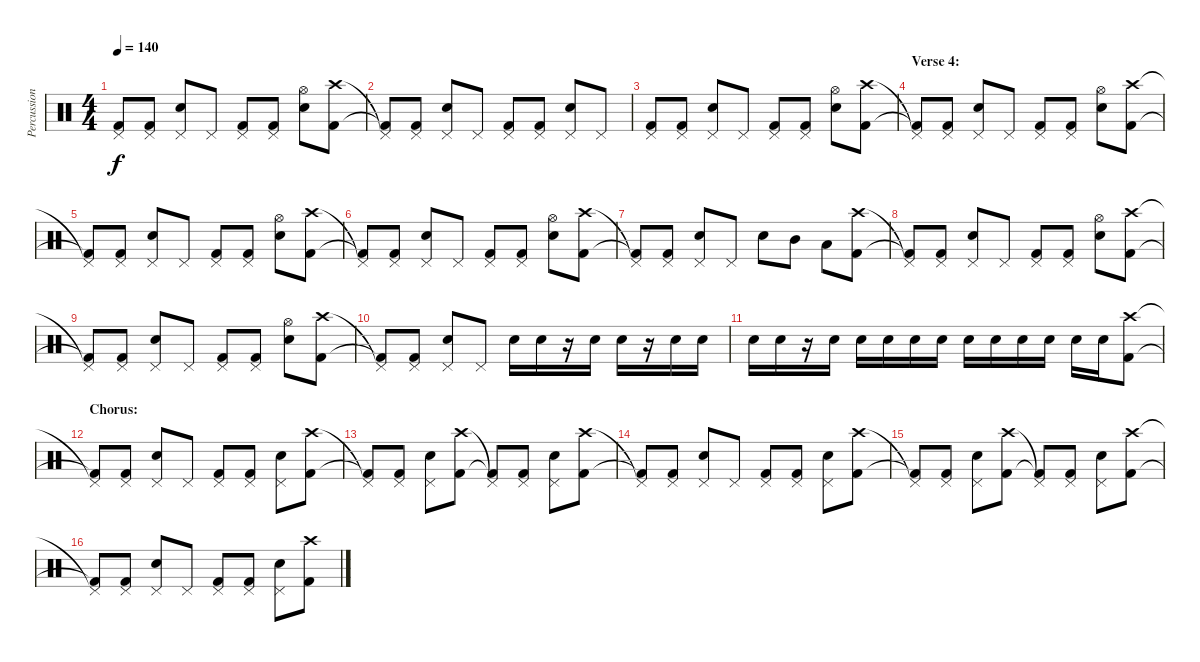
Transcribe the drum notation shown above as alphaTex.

\track ("Percussion" "Percussion") {instrument percussion}
\staff {score}
\articulation defaults
\ts (4 4)
\tempo 140
\clef neutral
\ks c
("Pedal Hi-Hat (hit)"{t} "Kick (hit) 2"{t}).8{dy f} ("Pedal Hi-Hat (hit)" "Kick (hit) 2").8 ("Pedal Hi-Hat (hit)" "Snare (hit) 2").8 "Pedal Hi-Hat (hit)".8 ("Pedal Hi-Hat (hit)" "Kick (hit) 2").8 ("Pedal Hi-Hat (hit)" "Kick (hit) 2").8 ("Hi-Hat (open)" "Snare (hit) 2").8 ("Crash high (hit)" "Kick (hit) 2").8 |
("Pedal Hi-Hat (hit)"{t} "Kick (hit) 2"{t}).8 ("Pedal Hi-Hat (hit)" "Kick (hit) 2").8 ("Pedal Hi-Hat (hit)" "Snare (hit) 2").8 "Pedal Hi-Hat (hit)".8 ("Pedal Hi-Hat (hit)" "Kick (hit) 2").8 ("Pedal Hi-Hat (hit)" "Kick (hit) 2").8 ("Pedal Hi-Hat (hit)" "Snare (hit) 2").8 "Pedal Hi-Hat (hit)".8 |
("Pedal Hi-Hat (hit)" "Kick (hit) 2").8 ("Pedal Hi-Hat (hit)" "Kick (hit) 2").8 ("Pedal Hi-Hat (hit)" "Snare (hit) 2").8 "Pedal Hi-Hat (hit)".8 ("Pedal Hi-Hat (hit)" "Kick (hit) 2").8 ("Pedal Hi-Hat (hit)" "Kick (hit) 2").8 ("Hi-Hat (open)" "Snare (hit) 2").8 ("Crash high (hit)" "Kick (hit) 2").8 |
\section ("" "Verse 4:")
("Pedal Hi-Hat (hit)"{t} "Kick (hit) 2"{t}).8 ("Pedal Hi-Hat (hit)" "Kick (hit) 2").8 ("Pedal Hi-Hat (hit)" "Snare (hit) 2").8 "Pedal Hi-Hat (hit)".8 ("Pedal Hi-Hat (hit)" "Kick (hit) 2").8 ("Pedal Hi-Hat (hit)" "Kick (hit) 2").8 ("Hi-Hat (open)" "Snare (hit) 2").8 ("Crash high (hit)" "Kick (hit) 2").8 |
("Pedal Hi-Hat (hit)"{t} "Kick (hit) 2"{t}).8 ("Pedal Hi-Hat (hit)" "Kick (hit) 2").8 ("Pedal Hi-Hat (hit)" "Snare (hit) 2").8 "Pedal Hi-Hat (hit)".8 ("Pedal Hi-Hat (hit)" "Kick (hit) 2").8 ("Pedal Hi-Hat (hit)" "Kick (hit) 2").8 ("Hi-Hat (open)" "Snare (hit) 2").8 ("Crash high (hit)" "Kick (hit) 2").8 |
("Pedal Hi-Hat (hit)"{t} "Kick (hit) 2"{t}).8 ("Pedal Hi-Hat (hit)" "Kick (hit) 2").8 ("Pedal Hi-Hat (hit)" "Snare (hit) 2").8 "Pedal Hi-Hat (hit)".8 ("Pedal Hi-Hat (hit)" "Kick (hit) 2").8 ("Pedal Hi-Hat (hit)" "Kick (hit) 2").8 ("Hi-Hat (open)" "Snare (hit) 2").8 ("Crash high (hit)" "Kick (hit) 2").8 |
("Pedal Hi-Hat (hit)"{t} "Kick (hit) 2"{t}).8 ("Pedal Hi-Hat (hit)" "Kick (hit) 2").8 ("Pedal Hi-Hat (hit)" "Snare (hit) 2").8 "Pedal Hi-Hat (hit)".8 "Snare (hit) 2".8 "Mid Tom (hit)".8 "Low Tom (hit)".8 ("Crash high (hit)" "Kick (hit) 2").8 |
("Pedal Hi-Hat (hit)"{t} "Kick (hit) 2"{t}).8 ("Pedal Hi-Hat (hit)" "Kick (hit) 2").8 ("Pedal Hi-Hat (hit)" "Snare (hit) 2").8 "Pedal Hi-Hat (hit)".8 ("Pedal Hi-Hat (hit)" "Kick (hit) 2").8 ("Pedal Hi-Hat (hit)" "Kick (hit) 2").8 ("Hi-Hat (open)" "Snare (hit) 2").8 ("Crash high (hit)" "Kick (hit) 2").8 |
("Pedal Hi-Hat (hit)"{t} "Kick (hit) 2"{t}).8 ("Pedal Hi-Hat (hit)" "Kick (hit) 2").8 ("Pedal Hi-Hat (hit)" "Snare (hit) 2").8 "Pedal Hi-Hat (hit)".8 ("Pedal Hi-Hat (hit)" "Kick (hit) 2").8 ("Pedal Hi-Hat (hit)" "Kick (hit) 2").8 ("Hi-Hat (open)" "Snare (hit) 2").8 ("Crash high (hit)" "Kick (hit) 2").8 |
("Pedal Hi-Hat (hit)"{t} "Kick (hit) 2"{t}).8 ("Pedal Hi-Hat (hit)" "Kick (hit) 2").8 ("Pedal Hi-Hat (hit)" "Snare (hit) 2").8 "Pedal Hi-Hat (hit)".8 "Snare (hit) 2".16 "Snare (hit) 2".16 r.16 "Snare (hit) 2".16 "Snare (hit) 2".16 r.16 "Snare (hit) 2".16 "Snare (hit) 2".16 |
"Snare (hit) 2".16 "Snare (hit) 2".16 r.16 "Snare (hit) 2".16 "Snare (hit) 2".16 "Snare (hit) 2".16 "Snare (hit) 2".16 "Snare (hit) 2".16 "Snare (hit) 2".16 "Snare (hit) 2".16 "Snare (hit) 2".16 "Snare (hit) 2".16 "Snare (hit) 2".16 "Snare (hit) 2".16 ("Crash high (hit)" "Kick (hit) 2").8 |
\section ("" "Chorus:")
("Pedal Hi-Hat (hit)"{t} "Kick (hit) 2"{t}).8 ("Pedal Hi-Hat (hit)" "Kick (hit) 2").8 ("Pedal Hi-Hat (hit)" "Snare (hit) 2").8 "Pedal Hi-Hat (hit)".8 ("Pedal Hi-Hat (hit)" "Kick (hit) 2").8 ("Pedal Hi-Hat (hit)" "Kick (hit) 2").8 ("Pedal Hi-Hat (hit)" "Snare (hit) 2").8 ("Crash high (hit)" "Kick (hit) 2").8 |
("Pedal Hi-Hat (hit)"{t} "Kick (hit) 2"{t}).8 ("Pedal Hi-Hat (hit)" "Kick (hit) 2").8 ("Pedal Hi-Hat (hit)" "Snare (hit) 2").8 ("Crash high (hit)" "Kick (hit) 2").8 ("Pedal Hi-Hat (hit)"{t} "Kick (hit) 2"{t}).8 ("Pedal Hi-Hat (hit)" "Kick (hit) 2").8 ("Pedal Hi-Hat (hit)" "Snare (hit) 2").8 ("Crash high (hit)" "Kick (hit) 2").8 |
("Pedal Hi-Hat (hit)"{t} "Kick (hit) 2"{t}).8 ("Pedal Hi-Hat (hit)" "Kick (hit) 2").8 ("Pedal Hi-Hat (hit)" "Snare (hit) 2").8 "Pedal Hi-Hat (hit)".8 ("Pedal Hi-Hat (hit)" "Kick (hit) 2").8 ("Pedal Hi-Hat (hit)" "Kick (hit) 2").8 ("Pedal Hi-Hat (hit)" "Snare (hit) 2").8 ("Crash high (hit)" "Kick (hit) 2").8 |
("Pedal Hi-Hat (hit)"{t} "Kick (hit) 2"{t}).8 ("Pedal Hi-Hat (hit)" "Kick (hit) 2").8 ("Pedal Hi-Hat (hit)" "Snare (hit) 2").8 ("Crash high (hit)" "Kick (hit) 2").8 ("Pedal Hi-Hat (hit)"{t} "Kick (hit) 2"{t}).8 ("Pedal Hi-Hat (hit)" "Kick (hit) 2").8 ("Pedal Hi-Hat (hit)" "Snare (hit) 2").8 ("Crash high (hit)" "Kick (hit) 2").8 |
("Pedal Hi-Hat (hit)"{t} "Kick (hit) 2"{t}).8 ("Pedal Hi-Hat (hit)" "Kick (hit) 2").8 ("Pedal Hi-Hat (hit)" "Snare (hit) 2").8 "Pedal Hi-Hat (hit)".8 ("Pedal Hi-Hat (hit)" "Kick (hit) 2").8 ("Pedal Hi-Hat (hit)" "Kick (hit) 2").8 ("Pedal Hi-Hat (hit)" "Snare (hit) 2").8 ("Crash high (hit)" "Kick (hit) 2").8
